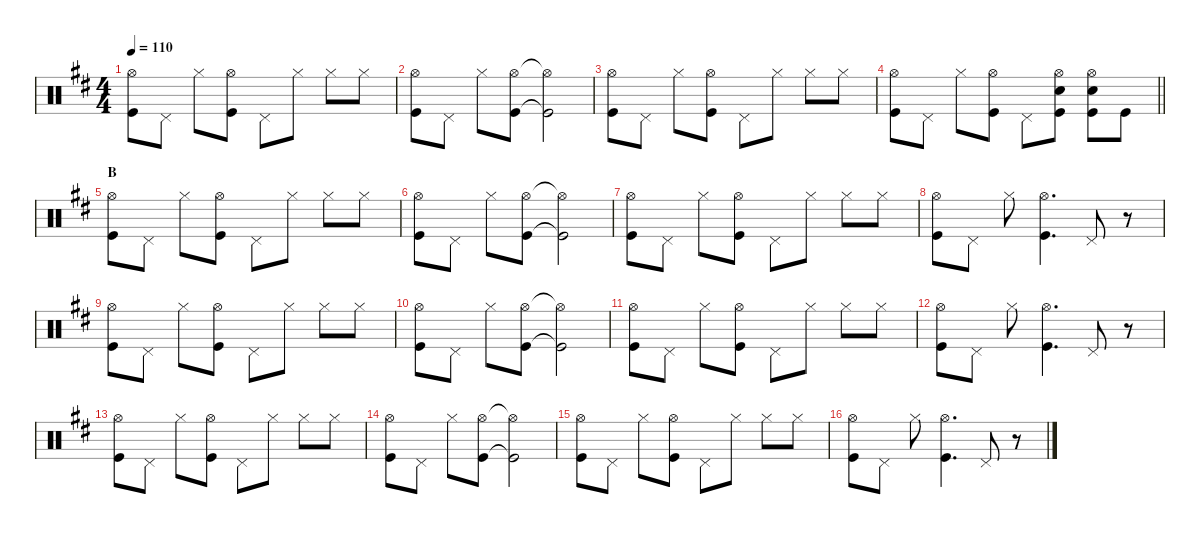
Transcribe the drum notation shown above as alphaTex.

\defaultSystemsLayout 4
\hideDynamics
\bracketExtendMode nobrackets
\singleTrackTrackNamePolicy hidden
\multiTrackTrackNamePolicy hidden
\firstSystemTrackNameMode fullname
\firstSystemTrackNameOrientation horizontal
\otherSystemsTrackNameOrientation horizontal
\track ("Aaron Harris" "drm.") {defaultSystemsLayout 4 instrument percussion}
\staff {score}
\articulation defaults
\ts (4 4)
\tempo 110
\clef neutral
\ks bminor
("Hi-Hat (open)"{acc forcenatural} "Kick (hit)"{acc forcenatural}).8{dy f beam Down} "Pedal Hi-Hat (hit)"{acc forcenatural}.8{beam Down} "Hi-Hat (closed)"{acc forcenatural}.8{beam Down} ("Hi-Hat (open)"{acc forcenatural} "Kick (hit)"{acc forcenatural}).8{beam Down} "Pedal Hi-Hat (hit)"{acc forcenatural}.8{beam Down} "Hi-Hat (closed)"{acc forcenatural}.8{beam Down} "Hi-Hat (closed)"{acc forcenatural}.8{beam Down} "Hi-Hat (closed)"{acc forcenatural}.8{beam Down} |
("Hi-Hat (open)"{acc forcenatural} "Kick (hit)"{acc forcenatural}).8{beam Down} "Pedal Hi-Hat (hit)"{acc forcenatural}.8{beam Down} "Hi-Hat (closed)"{acc forcenatural}.8{beam Down} ("Hi-Hat (open)"{acc forcenatural} "Kick (hit)"{acc forcenatural}).8{beam Down} ("Hi-Hat (open)"{t acc forcenatural} "Kick (hit)"{t acc forcenatural}).2{beam Down} |
("Hi-Hat (open)"{acc forcenatural} "Kick (hit)"{acc forcenatural}).8{beam Down} "Pedal Hi-Hat (hit)"{acc forcenatural}.8{beam Down} "Hi-Hat (closed)"{acc forcenatural}.8{beam Down} ("Hi-Hat (open)"{acc forcenatural} "Kick (hit)"{acc forcenatural}).8{beam Down} "Pedal Hi-Hat (hit)"{acc forcenatural}.8{beam Down} "Hi-Hat (closed)"{acc forcenatural}.8{beam Down} "Hi-Hat (closed)"{acc forcenatural}.8{beam Down} "Hi-Hat (closed)"{acc forcenatural}.8{beam Down} |
\barLineRight lightlight
("Hi-Hat (open)"{acc forcenatural} "Kick (hit)"{acc forcenatural}).8{beam Down} "Pedal Hi-Hat (hit)"{acc forcenatural}.8{beam Down} "Hi-Hat (closed)"{acc forcenatural}.8{beam Down} ("Hi-Hat (open)"{acc forcenatural} "Kick (hit)"{acc forcenatural}).8{beam Down} "Pedal Hi-Hat (hit)"{acc forcenatural}.8{beam Down} ("Hi-Hat (open)"{acc forcenatural} "Snare (hit) 2"{acc forcenatural} "Kick (hit)"{acc forcenatural}).8{beam Down} ("Hi-Hat (open)"{acc forcenatural} "Snare (hit) 2"{acc forcenatural} "Kick (hit)"{acc forcenatural}).8{beam Down} "Kick (hit)"{acc forcenatural}.8{beam Down} |
\section ("" "B")
("Hi-Hat (open)"{acc forcenatural} "Kick (hit)"{acc forcenatural}).8{beam Down} "Pedal Hi-Hat (hit)"{acc forcenatural}.8{beam Down} "Hi-Hat (closed)"{acc forcenatural}.8{beam Down} ("Hi-Hat (open)"{acc forcenatural} "Kick (hit)"{acc forcenatural}).8{beam Down} "Pedal Hi-Hat (hit)"{acc forcenatural}.8{beam Down} "Hi-Hat (closed)"{acc forcenatural}.8{beam Down} "Hi-Hat (closed)"{acc forcenatural}.8{beam Down} "Hi-Hat (closed)"{acc forcenatural}.8{beam Down} |
("Hi-Hat (open)"{acc forcenatural} "Kick (hit)"{acc forcenatural}).8{beam Down} "Pedal Hi-Hat (hit)"{acc forcenatural}.8{beam Down} "Hi-Hat (closed)"{acc forcenatural}.8{beam Down} ("Hi-Hat (open)"{acc forcenatural} "Kick (hit)"{acc forcenatural}).8{beam Down} ("Hi-Hat (open)"{t acc forcenatural} "Kick (hit)"{t acc forcenatural}).2{beam Down} |
("Hi-Hat (open)"{acc forcenatural} "Kick (hit)"{acc forcenatural}).8{beam Down} "Pedal Hi-Hat (hit)"{acc forcenatural}.8{beam Down} "Hi-Hat (closed)"{acc forcenatural}.8{beam Down} ("Hi-Hat (open)"{acc forcenatural} "Kick (hit)"{acc forcenatural}).8{beam Down} "Pedal Hi-Hat (hit)"{acc forcenatural}.8{beam Down} "Hi-Hat (closed)"{acc forcenatural}.8{beam Down} "Hi-Hat (closed)"{acc forcenatural}.8{beam Down} "Hi-Hat (closed)"{acc forcenatural}.8{beam Down} |
("Hi-Hat (open)"{acc forcenatural} "Kick (hit)"{acc forcenatural}).8{beam Down} "Pedal Hi-Hat (hit)"{acc forcenatural}.8{beam Down} "Hi-Hat (closed)"{acc forcenatural}.8{beam Down} ("Hi-Hat (open)"{acc forcenatural} "Kick (hit)"{acc forcenatural}).4{d beam Down} "Pedal Hi-Hat (hit)"{acc forcenatural}.8{beam Up} r.8{beam Up} |
("Hi-Hat (open)"{acc forcenatural} "Kick (hit)"{acc forcenatural}).8{beam Down} "Pedal Hi-Hat (hit)"{acc forcenatural}.8{beam Down} "Hi-Hat (closed)"{acc forcenatural}.8{beam Down} ("Hi-Hat (open)"{acc forcenatural} "Kick (hit)"{acc forcenatural}).8{beam Down} "Pedal Hi-Hat (hit)"{acc forcenatural}.8{beam Down} "Hi-Hat (closed)"{acc forcenatural}.8{beam Down} "Hi-Hat (closed)"{acc forcenatural}.8{beam Down} "Hi-Hat (closed)"{acc forcenatural}.8{beam Down} |
("Hi-Hat (open)"{acc forcenatural} "Kick (hit)"{acc forcenatural}).8{beam Down} "Pedal Hi-Hat (hit)"{acc forcenatural}.8{beam Down} "Hi-Hat (closed)"{acc forcenatural}.8{beam Down} ("Hi-Hat (open)"{acc forcenatural} "Kick (hit)"{acc forcenatural}).8{beam Down} ("Hi-Hat (open)"{t acc forcenatural} "Kick (hit)"{t acc forcenatural}).2{beam Down} |
("Hi-Hat (open)"{acc forcenatural} "Kick (hit)"{acc forcenatural}).8{beam Down} "Pedal Hi-Hat (hit)"{acc forcenatural}.8{beam Down} "Hi-Hat (closed)"{acc forcenatural}.8{beam Down} ("Hi-Hat (open)"{acc forcenatural} "Kick (hit)"{acc forcenatural}).8{beam Down} "Pedal Hi-Hat (hit)"{acc forcenatural}.8{beam Down} "Hi-Hat (closed)"{acc forcenatural}.8{beam Down} "Hi-Hat (closed)"{acc forcenatural}.8{beam Down} "Hi-Hat (closed)"{acc forcenatural}.8{beam Down} |
("Hi-Hat (open)"{acc forcenatural} "Kick (hit)"{acc forcenatural}).8{beam Down} "Pedal Hi-Hat (hit)"{acc forcenatural}.8{beam Down} "Hi-Hat (closed)"{acc forcenatural}.8{beam Down} ("Hi-Hat (open)"{acc forcenatural} "Kick (hit)"{acc forcenatural}).4{d beam Down} "Pedal Hi-Hat (hit)"{acc forcenatural}.8{beam Up} r.8{beam Up} |
("Hi-Hat (open)"{acc forcenatural} "Kick (hit)"{acc forcenatural}).8{beam Down} "Pedal Hi-Hat (hit)"{acc forcenatural}.8{beam Down} "Hi-Hat (closed)"{acc forcenatural}.8{beam Down} ("Hi-Hat (open)"{acc forcenatural} "Kick (hit)"{acc forcenatural}).8{beam Down} "Pedal Hi-Hat (hit)"{acc forcenatural}.8{beam Down} "Hi-Hat (closed)"{acc forcenatural}.8{beam Down} "Hi-Hat (closed)"{acc forcenatural}.8{beam Down} "Hi-Hat (closed)"{acc forcenatural}.8{beam Down} |
("Hi-Hat (open)"{acc forcenatural} "Kick (hit)"{acc forcenatural}).8{beam Down} "Pedal Hi-Hat (hit)"{acc forcenatural}.8{beam Down} "Hi-Hat (closed)"{acc forcenatural}.8{beam Down} ("Hi-Hat (open)"{acc forcenatural} "Kick (hit)"{acc forcenatural}).8{beam Down} ("Hi-Hat (open)"{t acc forcenatural} "Kick (hit)"{t acc forcenatural}).2{beam Down} |
("Hi-Hat (open)"{acc forcenatural} "Kick (hit)"{acc forcenatural}).8{beam Down} "Pedal Hi-Hat (hit)"{acc forcenatural}.8{beam Down} "Hi-Hat (closed)"{acc forcenatural}.8{beam Down} ("Hi-Hat (open)"{acc forcenatural} "Kick (hit)"{acc forcenatural}).8{beam Down} "Pedal Hi-Hat (hit)"{acc forcenatural}.8{beam Down} "Hi-Hat (closed)"{acc forcenatural}.8{beam Down} "Hi-Hat (closed)"{acc forcenatural}.8{beam Down} "Hi-Hat (closed)"{acc forcenatural}.8{beam Down} |
("Hi-Hat (open)"{acc forcenatural} "Kick (hit)"{acc forcenatural}).8{beam Down} "Pedal Hi-Hat (hit)"{acc forcenatural}.8{beam Down} "Hi-Hat (closed)"{acc forcenatural}.8{beam Down} ("Hi-Hat (open)"{acc forcenatural} "Kick (hit)"{acc forcenatural}).4{d beam Down} "Pedal Hi-Hat (hit)"{acc forcenatural}.8{beam Up} r.8{beam Up}
